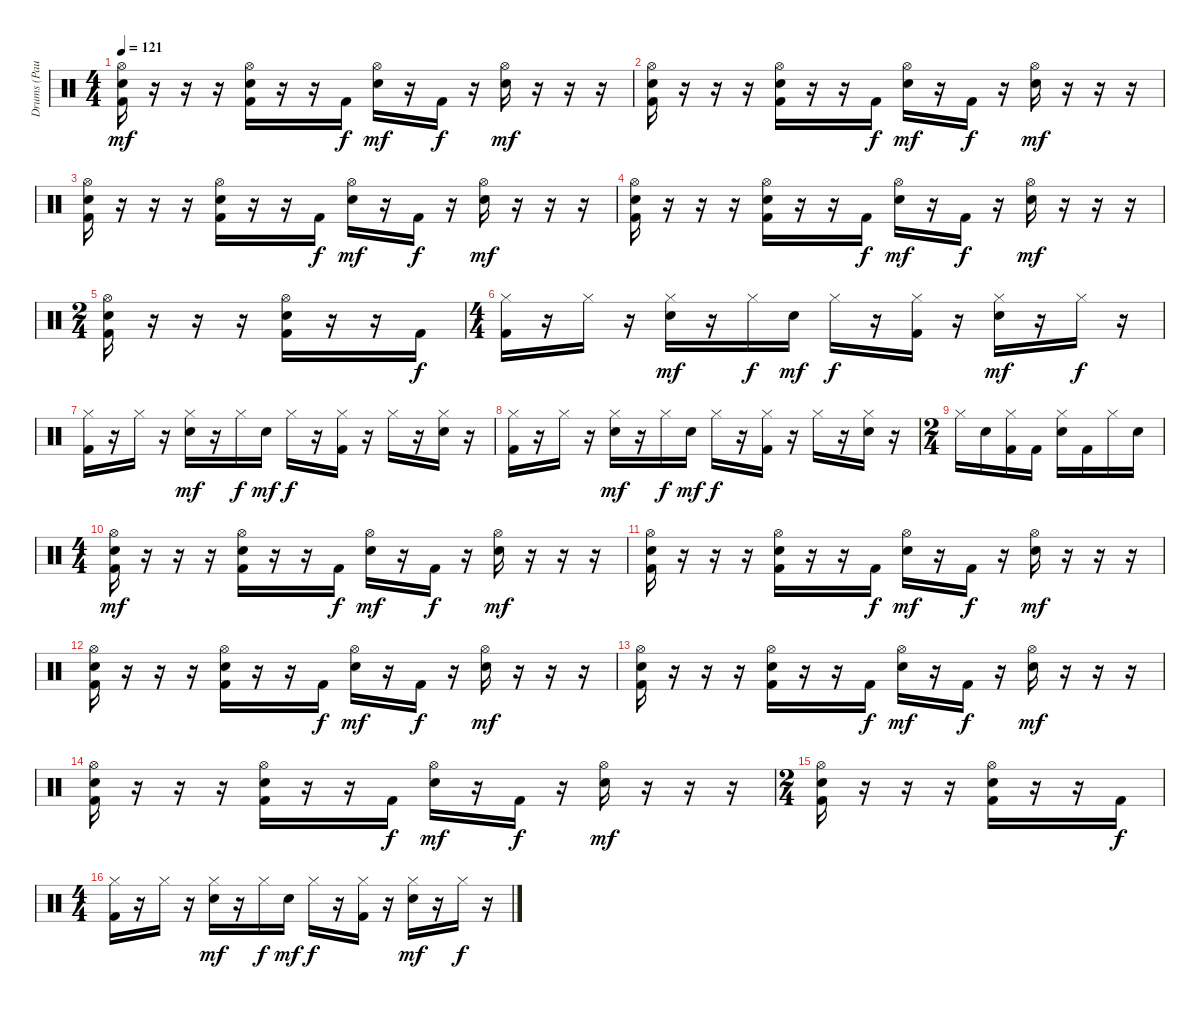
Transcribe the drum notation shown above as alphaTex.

\track ("Drums (Paul)" "Drums (Pau") {instrument percussion}
\staff {score}
\articulation defaults
\ts (4 4)
\tempo 121
\clef neutral
\ks c
("Hi-Hat (open)" "Snare (hit) 2" "Kick (hit) 2").16{dy mf} r.16 r.16 r.16 ("Hi-Hat (open)" "Snare (hit) 2" "Kick (hit) 2").16 r.16 r.16 "Kick (hit) 2".16{dy f} ("Hi-Hat (open)" "Snare (hit) 2").16{dy mf} r.16 "Kick (hit) 2".16{dy f} r.16 ("Hi-Hat (open)" "Snare (hit) 2").16{dy mf} r.16 r.16 r.16 |
("Hi-Hat (open)" "Snare (hit) 2" "Kick (hit) 2").16 r.16 r.16 r.16 ("Hi-Hat (open)" "Snare (hit) 2" "Kick (hit) 2").16 r.16 r.16 "Kick (hit) 2".16{dy f} ("Hi-Hat (open)" "Snare (hit) 2").16{dy mf} r.16 "Kick (hit) 2".16{dy f} r.16 ("Hi-Hat (open)" "Snare (hit) 2").16{dy mf} r.16 r.16 r.16 |
("Hi-Hat (open)" "Snare (hit) 2" "Kick (hit) 2").16 r.16 r.16 r.16 ("Hi-Hat (open)" "Snare (hit) 2" "Kick (hit) 2").16 r.16 r.16 "Kick (hit) 2".16{dy f} ("Hi-Hat (open)" "Snare (hit) 2").16{dy mf} r.16 "Kick (hit) 2".16{dy f} r.16 ("Hi-Hat (open)" "Snare (hit) 2").16{dy mf} r.16 r.16 r.16 |
("Hi-Hat (open)" "Snare (hit) 2" "Kick (hit) 2").16 r.16 r.16 r.16 ("Hi-Hat (open)" "Snare (hit) 2" "Kick (hit) 2").16 r.16 r.16 "Kick (hit) 2".16{dy f} ("Hi-Hat (open)" "Snare (hit) 2").16{dy mf} r.16 "Kick (hit) 2".16{dy f} r.16 ("Hi-Hat (open)" "Snare (hit) 2").16{dy mf} r.16 r.16 r.16 |
\ts (2 4)
("Hi-Hat (open)" "Snare (hit) 2" "Kick (hit) 2").16 r.16 r.16 r.16 ("Hi-Hat (open)" "Snare (hit) 2" "Kick (hit) 2").16 r.16 r.16 "Kick (hit) 2".16{dy f} |
\ts (4 4)
("Hi-Hat (closed)" "Kick (hit) 2").16 r.16 "Hi-Hat (closed)".16 r.16 ("Hi-Hat (closed)" "Snare (hit) 2").16{dy mf} r.16 "Hi-Hat (closed)".16{dy f} "Snare (hit) 2".16{dy mf} "Hi-Hat (closed)".16{dy f} r.16 ("Hi-Hat (closed)" "Kick (hit) 2").16 r.16 ("Hi-Hat (closed)" "Snare (hit) 2").16{dy mf} r.16 "Hi-Hat (closed)".16{dy f} r.16 |
("Hi-Hat (closed)" "Kick (hit) 2").16 r.16 "Hi-Hat (closed)".16 r.16 ("Hi-Hat (closed)" "Snare (hit) 2").16{dy mf} r.16 "Hi-Hat (closed)".16{dy f} "Snare (hit) 2".16{dy mf} "Hi-Hat (closed)".16{dy f} r.16 ("Hi-Hat (closed)" "Kick (hit) 2").16 r.16 "Hi-Hat (closed)".16 r.16 ("Hi-Hat (closed)" "Snare (hit) 2").16 r.16 |
("Hi-Hat (closed)" "Kick (hit) 2").16 r.16 "Hi-Hat (closed)".16 r.16 ("Hi-Hat (closed)" "Snare (hit) 2").16{dy mf} r.16 "Hi-Hat (closed)".16{dy f} "Snare (hit) 2".16{dy mf} "Hi-Hat (closed)".16{dy f} r.16 ("Hi-Hat (closed)" "Kick (hit) 2").16 r.16 "Hi-Hat (closed)".16 r.16 ("Hi-Hat (closed)" "Snare (hit) 2").16 r.16 |
\ts (2 4)
"Hi-Hat (closed)".16 "Snare (hit) 2".16 ("Hi-Hat (closed)" "Kick (hit) 2").16 "Kick (hit) 2".16 ("Hi-Hat (closed)" "Snare (hit) 2").16 "Kick (hit) 2".16 "Hi-Hat (closed)".16 "Snare (hit) 2".16 |
\ts (4 4)
("Hi-Hat (open)" "Snare (hit) 2" "Kick (hit) 2").16{dy mf} r.16 r.16 r.16 ("Hi-Hat (open)" "Snare (hit) 2" "Kick (hit) 2").16 r.16 r.16 "Kick (hit) 2".16{dy f} ("Hi-Hat (open)" "Snare (hit) 2").16{dy mf} r.16 "Kick (hit) 2".16{dy f} r.16 ("Hi-Hat (open)" "Snare (hit) 2").16{dy mf} r.16 r.16 r.16 |
("Hi-Hat (open)" "Snare (hit) 2" "Kick (hit) 2").16 r.16 r.16 r.16 ("Hi-Hat (open)" "Snare (hit) 2" "Kick (hit) 2").16 r.16 r.16 "Kick (hit) 2".16{dy f} ("Hi-Hat (open)" "Snare (hit) 2").16{dy mf} r.16 "Kick (hit) 2".16{dy f} r.16 ("Hi-Hat (open)" "Snare (hit) 2").16{dy mf} r.16 r.16 r.16 |
("Hi-Hat (open)" "Snare (hit) 2" "Kick (hit) 2").16 r.16 r.16 r.16 ("Hi-Hat (open)" "Snare (hit) 2" "Kick (hit) 2").16 r.16 r.16 "Kick (hit) 2".16{dy f} ("Hi-Hat (open)" "Snare (hit) 2").16{dy mf} r.16 "Kick (hit) 2".16{dy f} r.16 ("Hi-Hat (open)" "Snare (hit) 2").16{dy mf} r.16 r.16 r.16 |
("Hi-Hat (open)" "Snare (hit) 2" "Kick (hit) 2").16 r.16 r.16 r.16 ("Hi-Hat (open)" "Snare (hit) 2" "Kick (hit) 2").16 r.16 r.16 "Kick (hit) 2".16{dy f} ("Hi-Hat (open)" "Snare (hit) 2").16{dy mf} r.16 "Kick (hit) 2".16{dy f} r.16 ("Hi-Hat (open)" "Snare (hit) 2").16{dy mf} r.16 r.16 r.16 |
("Hi-Hat (open)" "Snare (hit) 2" "Kick (hit) 2").16 r.16 r.16 r.16 ("Hi-Hat (open)" "Snare (hit) 2" "Kick (hit) 2").16 r.16 r.16 "Kick (hit) 2".16{dy f} ("Hi-Hat (open)" "Snare (hit) 2").16{dy mf} r.16 "Kick (hit) 2".16{dy f} r.16 ("Hi-Hat (open)" "Snare (hit) 2").16{dy mf} r.16 r.16 r.16 |
\ts (2 4)
("Hi-Hat (open)" "Snare (hit) 2" "Kick (hit) 2").16 r.16 r.16 r.16 ("Hi-Hat (open)" "Snare (hit) 2" "Kick (hit) 2").16 r.16 r.16 "Kick (hit) 2".16{dy f} |
\ts (4 4)
("Hi-Hat (closed)" "Kick (hit) 2").16 r.16 "Hi-Hat (closed)".16 r.16 ("Hi-Hat (closed)" "Snare (hit) 2").16{dy mf} r.16 "Hi-Hat (closed)".16{dy f} "Snare (hit) 2".16{dy mf} "Hi-Hat (closed)".16{dy f} r.16 ("Hi-Hat (closed)" "Kick (hit) 2").16 r.16 ("Hi-Hat (closed)" "Snare (hit) 2").16{dy mf} r.16 "Hi-Hat (closed)".16{dy f} r.16
